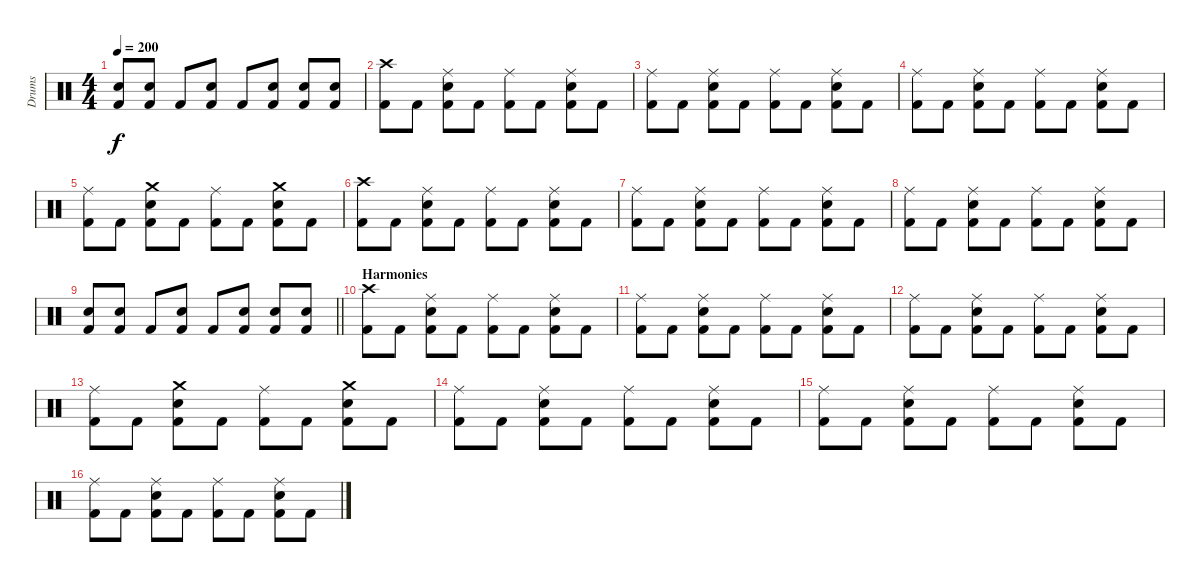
\track ("Drums" "Drums") {instrument percussion}
\staff {score}
\articulation defaults
\ts (4 4)
\tempo 200
\clef neutral
\ks c
("Snare (hit) 2" "Kick (hit) 2").8{dy f} ("Snare (hit) 2" "Kick (hit) 2").8 "Kick (hit) 2".8 ("Snare (hit) 2" "Kick (hit) 2").8 "Kick (hit) 2".8 ("Snare (hit) 2" "Kick (hit) 2").8 ("Snare (hit) 2" "Kick (hit) 2").8 ("Snare (hit) 2" "Kick (hit) 2").8 |
("Crash high (hit)" "Kick (hit) 2").8 "Kick (hit) 2".8 ("Ride (middle)" "Snare (hit) 2" "Kick (hit) 2").8 "Kick (hit) 2".8 ("Ride (middle)" "Kick (hit) 2").8 "Kick (hit) 2".8 ("Ride (middle)" "Snare (hit) 2" "Kick (hit) 2").8 "Kick (hit) 2".8 |
("Ride (middle)" "Kick (hit) 2").8 "Kick (hit) 2".8 ("Ride (middle)" "Snare (hit) 2" "Kick (hit) 2").8 "Kick (hit) 2".8 ("Ride (middle)" "Kick (hit) 2").8 "Kick (hit) 2".8 ("Ride (middle)" "Snare (hit) 2" "Kick (hit) 2").8 "Kick (hit) 2".8 |
("Ride (middle)" "Kick (hit) 2").8 "Kick (hit) 2".8 ("Ride (middle)" "Snare (hit) 2" "Kick (hit) 2").8 "Kick (hit) 2".8 ("Ride (middle)" "Kick (hit) 2").8 "Kick (hit) 2".8 ("Ride (middle)" "Snare (hit) 2" "Kick (hit) 2").8 "Kick (hit) 2".8 |
("Ride (middle)" "Kick (hit) 2").8 "Kick (hit) 2".8 ("Crash medium (hit)" "Snare (hit) 2" "Kick (hit) 2").8 "Kick (hit) 2".8 ("Ride (middle)" "Kick (hit) 2").8 "Kick (hit) 2".8 ("Crash medium (hit)" "Snare (hit) 2" "Kick (hit) 2").8 "Kick (hit) 2".8 |
("Crash high (hit)" "Kick (hit) 2").8 "Kick (hit) 2".8 ("Ride (middle)" "Snare (hit) 2" "Kick (hit) 2").8 "Kick (hit) 2".8 ("Ride (middle)" "Kick (hit) 2").8 "Kick (hit) 2".8 ("Ride (middle)" "Snare (hit) 2" "Kick (hit) 2").8 "Kick (hit) 2".8 |
("Ride (middle)" "Kick (hit) 2").8 "Kick (hit) 2".8 ("Ride (middle)" "Snare (hit) 2" "Kick (hit) 2").8 "Kick (hit) 2".8 ("Ride (middle)" "Kick (hit) 2").8 "Kick (hit) 2".8 ("Ride (middle)" "Snare (hit) 2" "Kick (hit) 2").8 "Kick (hit) 2".8 |
("Ride (middle)" "Kick (hit) 2").8 "Kick (hit) 2".8 ("Ride (middle)" "Snare (hit) 2" "Kick (hit) 2").8 "Kick (hit) 2".8 ("Ride (middle)" "Kick (hit) 2").8 "Kick (hit) 2".8 ("Ride (middle)" "Snare (hit) 2" "Kick (hit) 2").8 "Kick (hit) 2".8 |
\barLineRight lightlight
("Snare (hit) 2" "Kick (hit) 2").8 ("Snare (hit) 2" "Kick (hit) 2").8 "Kick (hit) 2".8 ("Snare (hit) 2" "Kick (hit) 2").8 "Kick (hit) 2".8 ("Snare (hit) 2" "Kick (hit) 2").8 ("Snare (hit) 2" "Kick (hit) 2").8 ("Snare (hit) 2" "Kick (hit) 2").8 |
\section ("" "Harmonies")
("Crash high (hit)" "Kick (hit) 2").8 "Kick (hit) 2".8 ("Ride (middle)" "Snare (hit) 2" "Kick (hit) 2").8 "Kick (hit) 2".8 ("Ride (middle)" "Kick (hit) 2").8 "Kick (hit) 2".8 ("Ride (middle)" "Snare (hit) 2" "Kick (hit) 2").8 "Kick (hit) 2".8 |
("Ride (middle)" "Kick (hit) 2").8 "Kick (hit) 2".8 ("Ride (middle)" "Snare (hit) 2" "Kick (hit) 2").8 "Kick (hit) 2".8 ("Ride (middle)" "Kick (hit) 2").8 "Kick (hit) 2".8 ("Ride (middle)" "Snare (hit) 2" "Kick (hit) 2").8 "Kick (hit) 2".8 |
("Ride (middle)" "Kick (hit) 2").8 "Kick (hit) 2".8 ("Ride (middle)" "Snare (hit) 2" "Kick (hit) 2").8 "Kick (hit) 2".8 ("Ride (middle)" "Kick (hit) 2").8 "Kick (hit) 2".8 ("Ride (middle)" "Snare (hit) 2" "Kick (hit) 2").8 "Kick (hit) 2".8 |
("Ride (middle)" "Kick (hit) 2").8 "Kick (hit) 2".8 ("Crash medium (hit)" "Snare (hit) 2" "Kick (hit) 2").8 "Kick (hit) 2".8 ("Ride (middle)" "Kick (hit) 2").8 "Kick (hit) 2".8 ("Crash medium (hit)" "Snare (hit) 2" "Kick (hit) 2").8 "Kick (hit) 2".8 |
("Ride (middle)" "Kick (hit) 2").8 "Kick (hit) 2".8 ("Ride (middle)" "Snare (hit) 2" "Kick (hit) 2").8 "Kick (hit) 2".8 ("Ride (middle)" "Kick (hit) 2").8 "Kick (hit) 2".8 ("Ride (middle)" "Snare (hit) 2" "Kick (hit) 2").8 "Kick (hit) 2".8 |
("Ride (middle)" "Kick (hit) 2").8 "Kick (hit) 2".8 ("Ride (middle)" "Snare (hit) 2" "Kick (hit) 2").8 "Kick (hit) 2".8 ("Ride (middle)" "Kick (hit) 2").8 "Kick (hit) 2".8 ("Ride (middle)" "Snare (hit) 2" "Kick (hit) 2").8 "Kick (hit) 2".8 |
("Ride (middle)" "Kick (hit) 2").8 "Kick (hit) 2".8 ("Ride (middle)" "Snare (hit) 2" "Kick (hit) 2").8 "Kick (hit) 2".8 ("Ride (middle)" "Kick (hit) 2").8 "Kick (hit) 2".8 ("Ride (middle)" "Snare (hit) 2" "Kick (hit) 2").8 "Kick (hit) 2".8
